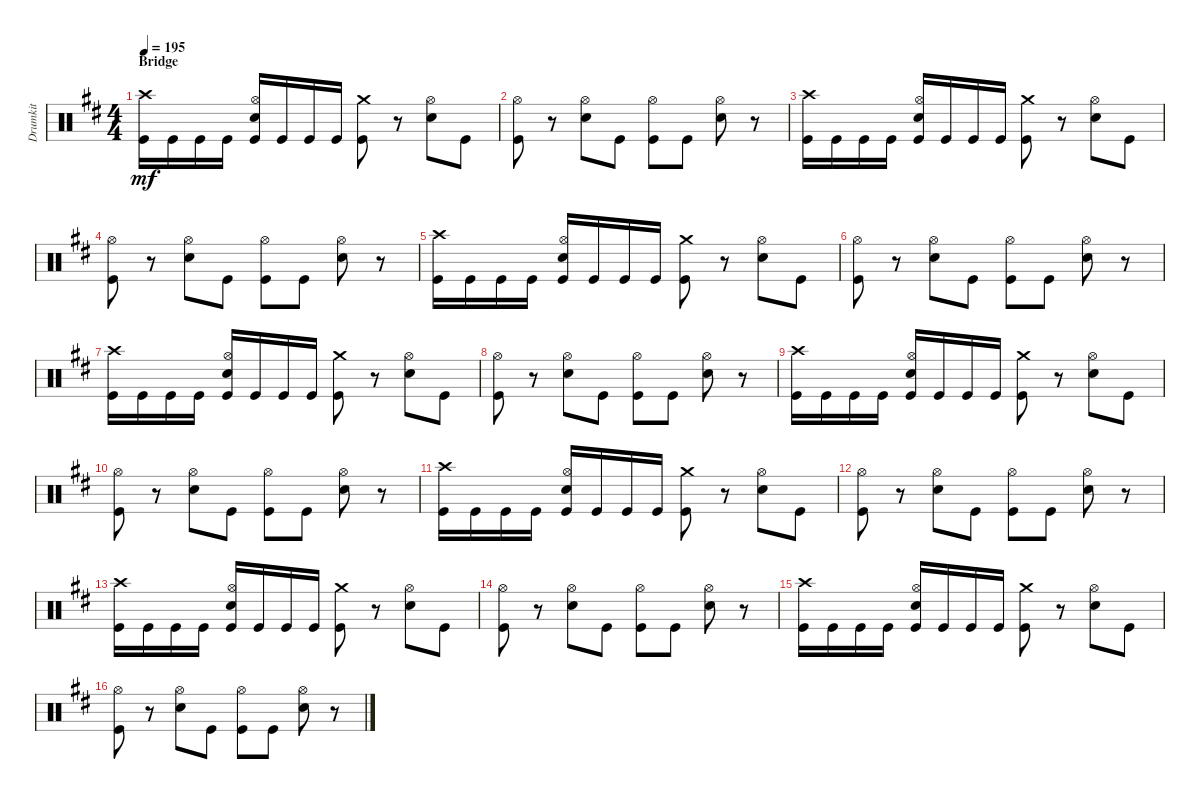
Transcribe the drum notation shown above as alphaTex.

\track ("Drumkit" "Drumkit") {instrument percussion}
\staff {score}
\articulation defaults
\ts (4 4)
\section ("" "Bridge")
\tempo 195
\clef neutral
\ks bminor
("Kick (hit)" "Crash high (hit)").16{dy mf} "Kick (hit)".16 "Kick (hit)".16 "Kick (hit)".16 ("Kick (hit)" "Hi-Hat (open)" "Snare (hit) 2").16 "Kick (hit)".16 "Kick (hit)".16 "Kick (hit)".16 ("Kick (hit)" "Crash medium (hit)").8 r.8 ("Hi-Hat (open)" "Snare (hit) 2").8 "Kick (hit)".8 |
("Kick (hit)" "Hi-Hat (open)").8 r.8 ("Hi-Hat (open)" "Snare (hit) 2").8 "Kick (hit)".8 ("Hi-Hat (open)" "Kick (hit)").8 "Kick (hit)".8 ("Hi-Hat (open)" "Snare (hit) 2").8 r.8 |
("Kick (hit)" "Crash high (hit)").16 "Kick (hit)".16 "Kick (hit)".16 "Kick (hit)".16 ("Kick (hit)" "Hi-Hat (open)" "Snare (hit) 2").16 "Kick (hit)".16 "Kick (hit)".16 "Kick (hit)".16 ("Kick (hit)" "Crash medium (hit)").8 r.8 ("Hi-Hat (open)" "Snare (hit) 2").8 "Kick (hit)".8 |
("Kick (hit)" "Hi-Hat (open)").8 r.8 ("Hi-Hat (open)" "Snare (hit) 2").8 "Kick (hit)".8 ("Hi-Hat (open)" "Kick (hit)").8 "Kick (hit)".8 ("Hi-Hat (open)" "Snare (hit) 2").8 r.8 |
("Kick (hit)" "Crash high (hit)").16 "Kick (hit)".16 "Kick (hit)".16 "Kick (hit)".16 ("Kick (hit)" "Hi-Hat (open)" "Snare (hit) 2").16 "Kick (hit)".16 "Kick (hit)".16 "Kick (hit)".16 ("Kick (hit)" "Crash medium (hit)").8 r.8 ("Hi-Hat (open)" "Snare (hit) 2").8 "Kick (hit)".8 |
("Kick (hit)" "Hi-Hat (open)").8 r.8 ("Hi-Hat (open)" "Snare (hit) 2").8 "Kick (hit)".8 ("Hi-Hat (open)" "Kick (hit)").8 "Kick (hit)".8 ("Hi-Hat (open)" "Snare (hit) 2").8 r.8 |
("Kick (hit)" "Crash high (hit)").16 "Kick (hit)".16 "Kick (hit)".16 "Kick (hit)".16 ("Kick (hit)" "Hi-Hat (open)" "Snare (hit) 2").16 "Kick (hit)".16 "Kick (hit)".16 "Kick (hit)".16 ("Kick (hit)" "Crash medium (hit)").8 r.8 ("Hi-Hat (open)" "Snare (hit) 2").8 "Kick (hit)".8 |
("Kick (hit)" "Hi-Hat (open)").8 r.8 ("Hi-Hat (open)" "Snare (hit) 2").8 "Kick (hit)".8 ("Hi-Hat (open)" "Kick (hit)").8 "Kick (hit)".8 ("Hi-Hat (open)" "Snare (hit) 2").8 r.8 |
("Kick (hit)" "Crash high (hit)").16 "Kick (hit)".16 "Kick (hit)".16 "Kick (hit)".16 ("Kick (hit)" "Hi-Hat (open)" "Snare (hit) 2").16 "Kick (hit)".16 "Kick (hit)".16 "Kick (hit)".16 ("Kick (hit)" "Crash medium (hit)").8 r.8 ("Hi-Hat (open)" "Snare (hit) 2").8 "Kick (hit)".8 |
("Kick (hit)" "Hi-Hat (open)").8 r.8 ("Hi-Hat (open)" "Snare (hit) 2").8 "Kick (hit)".8 ("Hi-Hat (open)" "Kick (hit)").8 "Kick (hit)".8 ("Hi-Hat (open)" "Snare (hit) 2").8 r.8 |
("Kick (hit)" "Crash high (hit)").16 "Kick (hit)".16 "Kick (hit)".16 "Kick (hit)".16 ("Kick (hit)" "Hi-Hat (open)" "Snare (hit) 2").16 "Kick (hit)".16 "Kick (hit)".16 "Kick (hit)".16 ("Kick (hit)" "Crash medium (hit)").8 r.8 ("Hi-Hat (open)" "Snare (hit) 2").8 "Kick (hit)".8 |
("Kick (hit)" "Hi-Hat (open)").8 r.8 ("Hi-Hat (open)" "Snare (hit) 2").8 "Kick (hit)".8 ("Hi-Hat (open)" "Kick (hit)").8 "Kick (hit)".8 ("Hi-Hat (open)" "Snare (hit) 2").8 r.8 |
("Kick (hit)" "Crash high (hit)").16 "Kick (hit)".16 "Kick (hit)".16 "Kick (hit)".16 ("Kick (hit)" "Hi-Hat (open)" "Snare (hit) 2").16 "Kick (hit)".16 "Kick (hit)".16 "Kick (hit)".16 ("Kick (hit)" "Crash medium (hit)").8 r.8 ("Hi-Hat (open)" "Snare (hit) 2").8 "Kick (hit)".8 |
("Kick (hit)" "Hi-Hat (open)").8 r.8 ("Hi-Hat (open)" "Snare (hit) 2").8 "Kick (hit)".8 ("Hi-Hat (open)" "Kick (hit)").8 "Kick (hit)".8 ("Hi-Hat (open)" "Snare (hit) 2").8 r.8 |
("Kick (hit)" "Crash high (hit)").16 "Kick (hit)".16 "Kick (hit)".16 "Kick (hit)".16 ("Kick (hit)" "Hi-Hat (open)" "Snare (hit) 2").16 "Kick (hit)".16 "Kick (hit)".16 "Kick (hit)".16 ("Kick (hit)" "Crash medium (hit)").8 r.8 ("Hi-Hat (open)" "Snare (hit) 2").8 "Kick (hit)".8 |
("Kick (hit)" "Hi-Hat (open)").8 r.8 ("Hi-Hat (open)" "Snare (hit) 2").8 "Kick (hit)".8 ("Hi-Hat (open)" "Kick (hit)").8 "Kick (hit)".8 ("Hi-Hat (open)" "Snare (hit) 2").8 r.8
